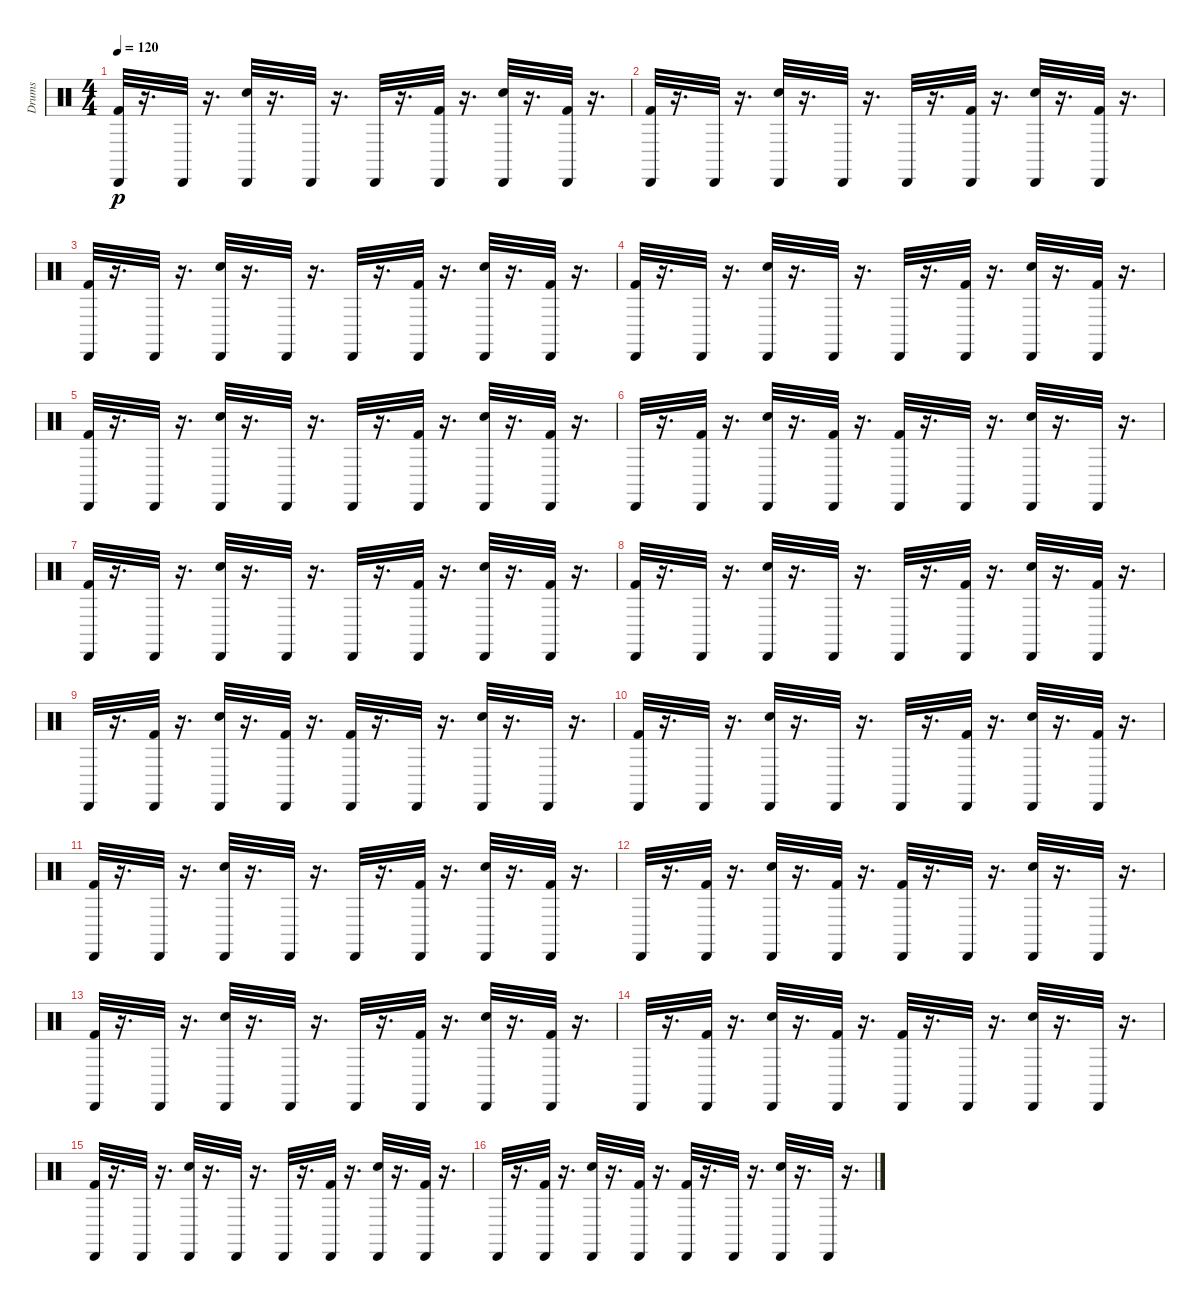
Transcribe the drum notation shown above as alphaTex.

\track ("Drums" "Drums") {instrument percussion}
\staff {score}
\articulation defaults
\ts (4 4)
\tempo 120
\clef neutral
\ks c
("Cabasa (hit)" "Kick (hit) 2").32{dy p} r.16{d} "Cabasa (hit)".32 r.16{d} ("Cabasa (hit)" "Electric Snare (hit)").32 r.16{d} "Cabasa (hit)".32 r.16{d} "Cabasa (hit)".32 r.16{d} ("Cabasa (hit)" "Kick (hit) 2").32 r.16{d} ("Cabasa (hit)" "Electric Snare (hit)").32 r.16{d} ("Cabasa (hit)" "Kick (hit) 2").32 r.16{d} |
("Cabasa (hit)" "Kick (hit) 2").32 r.16{d} "Cabasa (hit)".32 r.16{d} ("Cabasa (hit)" "Electric Snare (hit)").32 r.16{d} "Cabasa (hit)".32 r.16{d} "Cabasa (hit)".32 r.16{d} ("Cabasa (hit)" "Kick (hit) 2").32 r.16{d} ("Cabasa (hit)" "Electric Snare (hit)").32 r.16{d} ("Cabasa (hit)" "Kick (hit) 2").32 r.16{d} |
("Cabasa (hit)" "Kick (hit) 2").32 r.16{d} "Cabasa (hit)".32 r.16{d} ("Cabasa (hit)" "Electric Snare (hit)").32 r.16{d} "Cabasa (hit)".32 r.16{d} "Cabasa (hit)".32 r.16{d} ("Cabasa (hit)" "Kick (hit) 2").32 r.16{d} ("Cabasa (hit)" "Electric Snare (hit)").32 r.16{d} ("Cabasa (hit)" "Kick (hit) 2").32 r.16{d} |
("Cabasa (hit)" "Kick (hit) 2").32 r.16{d} "Cabasa (hit)".32 r.16{d} ("Cabasa (hit)" "Electric Snare (hit)").32 r.16{d} "Cabasa (hit)".32 r.16{d} "Cabasa (hit)".32 r.16{d} ("Cabasa (hit)" "Kick (hit) 2").32 r.16{d} ("Cabasa (hit)" "Electric Snare (hit)").32 r.16{d} ("Cabasa (hit)" "Kick (hit) 2").32 r.16{d} |
("Cabasa (hit)" "Kick (hit) 2").32 r.16{d} "Cabasa (hit)".32 r.16{d} ("Cabasa (hit)" "Electric Snare (hit)").32 r.16{d} "Cabasa (hit)".32 r.16{d} "Cabasa (hit)".32 r.16{d} ("Cabasa (hit)" "Kick (hit) 2").32 r.16{d} ("Cabasa (hit)" "Electric Snare (hit)").32 r.16{d} ("Cabasa (hit)" "Kick (hit) 2").32 r.16{d} |
"Cabasa (hit)".32 r.16{d} ("Cabasa (hit)" "Kick (hit) 2").32 r.16{d} ("Cabasa (hit)" "Electric Snare (hit)").32 r.16{d} ("Cabasa (hit)" "Kick (hit) 2").32 r.16{d} ("Cabasa (hit)" "Kick (hit) 2").32 r.16{d} "Cabasa (hit)".32 r.16{d} ("Cabasa (hit)" "Electric Snare (hit)").32 r.16{d} "Cabasa (hit)".32 r.16{d} |
("Cabasa (hit)" "Kick (hit) 2").32 r.16{d} "Cabasa (hit)".32 r.16{d} ("Cabasa (hit)" "Electric Snare (hit)").32 r.16{d} "Cabasa (hit)".32 r.16{d} "Cabasa (hit)".32 r.16{d} ("Cabasa (hit)" "Kick (hit) 2").32 r.16{d} ("Cabasa (hit)" "Electric Snare (hit)").32 r.16{d} ("Cabasa (hit)" "Kick (hit) 2").32 r.16{d} |
("Cabasa (hit)" "Kick (hit) 2").32 r.16{d} "Cabasa (hit)".32 r.16{d} ("Cabasa (hit)" "Electric Snare (hit)").32 r.16{d} "Cabasa (hit)".32 r.16{d} "Cabasa (hit)".32 r.16{d} ("Cabasa (hit)" "Kick (hit) 2").32 r.16{d} ("Cabasa (hit)" "Electric Snare (hit)").32 r.16{d} ("Cabasa (hit)" "Kick (hit) 2").32 r.16{d} |
"Cabasa (hit)".32 r.16{d} ("Cabasa (hit)" "Kick (hit) 2").32 r.16{d} ("Cabasa (hit)" "Electric Snare (hit)").32 r.16{d} ("Cabasa (hit)" "Kick (hit) 2").32 r.16{d} ("Cabasa (hit)" "Kick (hit) 2").32 r.16{d} "Cabasa (hit)".32 r.16{d} ("Cabasa (hit)" "Electric Snare (hit)").32 r.16{d} "Cabasa (hit)".32 r.16{d} |
("Cabasa (hit)" "Kick (hit) 2").32 r.16{d} "Cabasa (hit)".32 r.16{d} ("Cabasa (hit)" "Electric Snare (hit)").32 r.16{d} "Cabasa (hit)".32 r.16{d} "Cabasa (hit)".32 r.16{d} ("Cabasa (hit)" "Kick (hit) 2").32 r.16{d} ("Cabasa (hit)" "Electric Snare (hit)").32 r.16{d} ("Cabasa (hit)" "Kick (hit) 2").32 r.16{d} |
("Cabasa (hit)" "Kick (hit) 2").32 r.16{d} "Cabasa (hit)".32 r.16{d} ("Cabasa (hit)" "Electric Snare (hit)").32 r.16{d} "Cabasa (hit)".32 r.16{d} "Cabasa (hit)".32 r.16{d} ("Cabasa (hit)" "Kick (hit) 2").32 r.16{d} ("Cabasa (hit)" "Electric Snare (hit)").32 r.16{d} ("Cabasa (hit)" "Kick (hit) 2").32 r.16{d} |
"Cabasa (hit)".32 r.16{d} ("Cabasa (hit)" "Kick (hit) 2").32 r.16{d} ("Cabasa (hit)" "Electric Snare (hit)").32 r.16{d} ("Cabasa (hit)" "Kick (hit) 2").32 r.16{d} ("Cabasa (hit)" "Kick (hit) 2").32 r.16{d} "Cabasa (hit)".32 r.16{d} ("Cabasa (hit)" "Electric Snare (hit)").32 r.16{d} "Cabasa (hit)".32 r.16{d} |
("Cabasa (hit)" "Kick (hit) 2").32 r.16{d} "Cabasa (hit)".32 r.16{d} ("Cabasa (hit)" "Electric Snare (hit)").32 r.16{d} "Cabasa (hit)".32 r.16{d} "Cabasa (hit)".32 r.16{d} ("Cabasa (hit)" "Kick (hit) 2").32 r.16{d} ("Cabasa (hit)" "Electric Snare (hit)").32 r.16{d} ("Cabasa (hit)" "Kick (hit) 2").32 r.16{d} |
"Cabasa (hit)".32 r.16{d} ("Cabasa (hit)" "Kick (hit) 2").32 r.16{d} ("Cabasa (hit)" "Electric Snare (hit)").32 r.16{d} ("Cabasa (hit)" "Kick (hit) 2").32 r.16{d} ("Cabasa (hit)" "Kick (hit) 2").32 r.16{d} "Cabasa (hit)".32 r.16{d} ("Cabasa (hit)" "Electric Snare (hit)").32 r.16{d} "Cabasa (hit)".32 r.16{d} |
("Cabasa (hit)" "Kick (hit) 2").32 r.16{d} "Cabasa (hit)".32 r.16{d} ("Cabasa (hit)" "Electric Snare (hit)").32 r.16{d} "Cabasa (hit)".32 r.16{d} "Cabasa (hit)".32 r.16{d} ("Cabasa (hit)" "Kick (hit) 2").32 r.16{d} ("Cabasa (hit)" "Electric Snare (hit)").32 r.16{d} ("Cabasa (hit)" "Kick (hit) 2").32 r.16{d} |
"Cabasa (hit)".32 r.16{d} ("Cabasa (hit)" "Kick (hit) 2").32 r.16{d} ("Cabasa (hit)" "Electric Snare (hit)").32 r.16{d} ("Cabasa (hit)" "Kick (hit) 2").32 r.16{d} ("Cabasa (hit)" "Kick (hit) 2").32 r.16{d} "Cabasa (hit)".32 r.16{d} ("Cabasa (hit)" "Electric Snare (hit)").32 r.16{d} "Cabasa (hit)".32 r.16{d}
